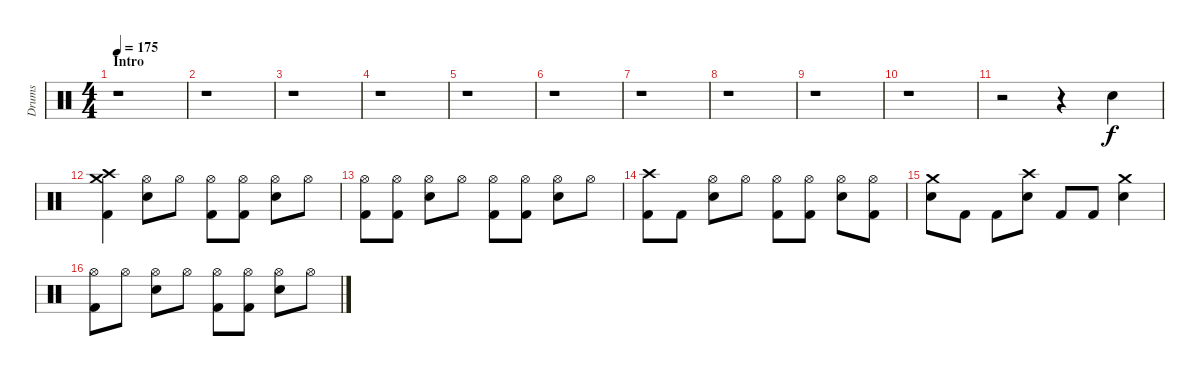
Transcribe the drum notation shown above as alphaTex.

\track ("Drums" "Drums") {instrument percussion}
\staff {score}
\articulation defaults
\ts (4 4)
\section ("" "Intro")
\tempo 175
\clef neutral
\ks c
r.1{dy f} |
r.1 |
r.1 |
r.1 |
r.1 |
r.1 |
r.1 |
r.1 |
r.1 |
r.1 |
r.2 r.4 "Electric Snare (hit)".4 |
("Crash high (hit)" "Crash medium (hit)" "Kick (hit) 2").4 ("Hi-Hat (open)" "Electric Snare (hit)").8 "Hi-Hat (open)".8 ("Hi-Hat (open)" "Kick (hit) 2").8 ("Hi-Hat (open)" "Kick (hit) 2").8 ("Hi-Hat (open)" "Electric Snare (hit)").8 "Hi-Hat (open)".8 |
("Hi-Hat (open)" "Kick (hit) 2").8 ("Hi-Hat (open)" "Kick (hit) 2").8 ("Hi-Hat (open)" "Electric Snare (hit)").8 "Hi-Hat (open)".8 ("Hi-Hat (open)" "Kick (hit) 2").8 ("Hi-Hat (open)" "Kick (hit) 2").8 ("Hi-Hat (open)" "Electric Snare (hit)").8 "Hi-Hat (open)".8 |
("Crash high (hit)" "Kick (hit) 2").8 "Kick (hit) 2".8 ("Hi-Hat (open)" "Electric Snare (hit)").8 "Hi-Hat (open)".8 ("Hi-Hat (open)" "Kick (hit) 2").8 ("Hi-Hat (open)" "Kick (hit) 2").8 ("Hi-Hat (open)" "Electric Snare (hit)").8 ("Hi-Hat (open)" "Kick (hit) 2").8 |
("Crash medium (hit)" "Electric Snare (hit)").8 "Kick (hit) 2".8 "Kick (hit) 2".8 ("Crash high (hit)" "Electric Snare (hit)").8 "Kick (hit) 2".8 "Kick (hit) 2".8 ("Crash medium (hit)" "Electric Snare (hit)").4 |
("Hi-Hat (open)" "Kick (hit) 2").8 "Hi-Hat (open)".8 ("Hi-Hat (open)" "Electric Snare (hit)").8 "Hi-Hat (open)".8 ("Hi-Hat (open)" "Kick (hit) 2").8 ("Hi-Hat (open)" "Kick (hit) 2").8 ("Hi-Hat (open)" "Electric Snare (hit)").8 "Hi-Hat (open)".8
